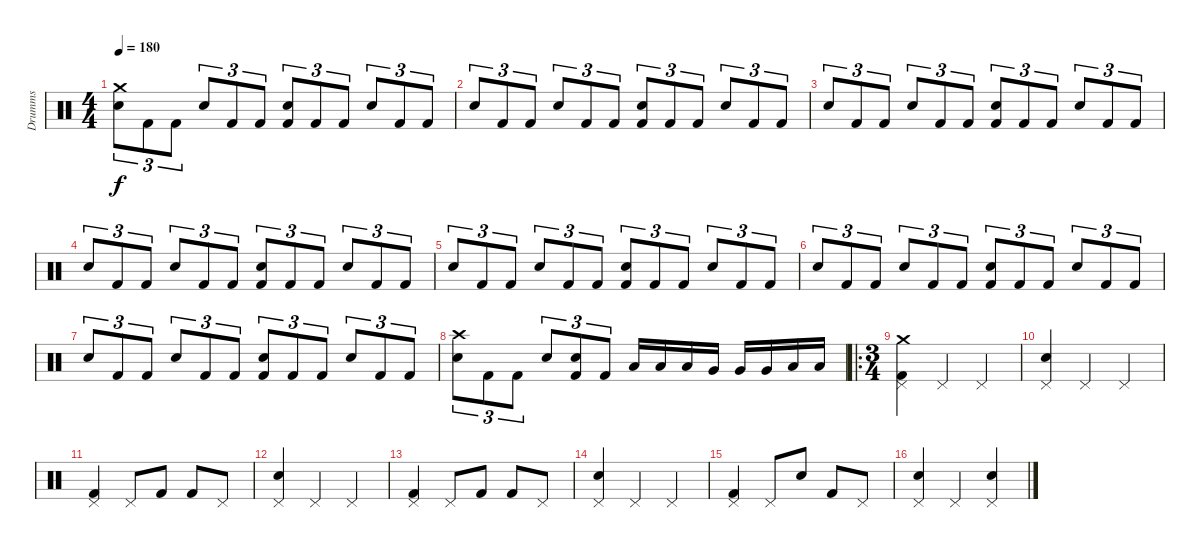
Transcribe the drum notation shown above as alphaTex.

\track ("Drumms" "Drumms") {instrument percussion}
\staff {score}
\articulation defaults
\ts (4 4)
\tempo 180
\clef neutral
\ks c
("Snare (hit) 2" "Crash medium (hit)").8{tu (3 2) dy f} "Kick (hit) 2".8{tu (3 2)} "Kick (hit) 2".8{tu (3 2)} "Snare (hit) 2".8{tu (3 2)} "Kick (hit) 2".8{tu (3 2)} "Kick (hit) 2".8{tu (3 2)} ("Kick (hit) 2" "Snare (hit) 2").8{tu (3 2)} "Kick (hit) 2".8{tu (3 2)} "Kick (hit) 2".8{tu (3 2)} "Snare (hit) 2".8{tu (3 2)} "Kick (hit) 2".8{tu (3 2)} "Kick (hit) 2".8{tu (3 2)} |
"Snare (hit) 2".8{tu (3 2)} "Kick (hit) 2".8{tu (3 2)} "Kick (hit) 2".8{tu (3 2)} "Snare (hit) 2".8{tu (3 2)} "Kick (hit) 2".8{tu (3 2)} "Kick (hit) 2".8{tu (3 2)} ("Kick (hit) 2" "Snare (hit) 2").8{tu (3 2)} "Kick (hit) 2".8{tu (3 2)} "Kick (hit) 2".8{tu (3 2)} "Snare (hit) 2".8{tu (3 2)} "Kick (hit) 2".8{tu (3 2)} "Kick (hit) 2".8{tu (3 2)} |
"Snare (hit) 2".8{tu (3 2)} "Kick (hit) 2".8{tu (3 2)} "Kick (hit) 2".8{tu (3 2)} "Snare (hit) 2".8{tu (3 2)} "Kick (hit) 2".8{tu (3 2)} "Kick (hit) 2".8{tu (3 2)} ("Kick (hit) 2" "Snare (hit) 2").8{tu (3 2)} "Kick (hit) 2".8{tu (3 2)} "Kick (hit) 2".8{tu (3 2)} "Snare (hit) 2".8{tu (3 2)} "Kick (hit) 2".8{tu (3 2)} "Kick (hit) 2".8{tu (3 2)} |
"Snare (hit) 2".8{tu (3 2)} "Kick (hit) 2".8{tu (3 2)} "Kick (hit) 2".8{tu (3 2)} "Snare (hit) 2".8{tu (3 2)} "Kick (hit) 2".8{tu (3 2)} "Kick (hit) 2".8{tu (3 2)} ("Kick (hit) 2" "Snare (hit) 2").8{tu (3 2)} "Kick (hit) 2".8{tu (3 2)} "Kick (hit) 2".8{tu (3 2)} "Snare (hit) 2".8{tu (3 2)} "Kick (hit) 2".8{tu (3 2)} "Kick (hit) 2".8{tu (3 2)} |
"Snare (hit) 2".8{tu (3 2)} "Kick (hit) 2".8{tu (3 2)} "Kick (hit) 2".8{tu (3 2)} "Snare (hit) 2".8{tu (3 2)} "Kick (hit) 2".8{tu (3 2)} "Kick (hit) 2".8{tu (3 2)} ("Kick (hit) 2" "Snare (hit) 2").8{tu (3 2)} "Kick (hit) 2".8{tu (3 2)} "Kick (hit) 2".8{tu (3 2)} "Snare (hit) 2".8{tu (3 2)} "Kick (hit) 2".8{tu (3 2)} "Kick (hit) 2".8{tu (3 2)} |
"Snare (hit) 2".8{tu (3 2)} "Kick (hit) 2".8{tu (3 2)} "Kick (hit) 2".8{tu (3 2)} "Snare (hit) 2".8{tu (3 2)} "Kick (hit) 2".8{tu (3 2)} "Kick (hit) 2".8{tu (3 2)} ("Kick (hit) 2" "Snare (hit) 2").8{tu (3 2)} "Kick (hit) 2".8{tu (3 2)} "Kick (hit) 2".8{tu (3 2)} "Snare (hit) 2".8{tu (3 2)} "Kick (hit) 2".8{tu (3 2)} "Kick (hit) 2".8{tu (3 2)} |
"Snare (hit) 2".8{tu (3 2)} "Kick (hit) 2".8{tu (3 2)} "Kick (hit) 2".8{tu (3 2)} "Snare (hit) 2".8{tu (3 2)} "Kick (hit) 2".8{tu (3 2)} "Kick (hit) 2".8{tu (3 2)} ("Kick (hit) 2" "Snare (hit) 2").8{tu (3 2)} "Kick (hit) 2".8{tu (3 2)} "Kick (hit) 2".8{tu (3 2)} "Snare (hit) 2".8{tu (3 2)} "Kick (hit) 2".8{tu (3 2)} "Kick (hit) 2".8{tu (3 2)} |
("Snare (hit) 2" "Crash high (hit)").8{tu (3 2)} "Kick (hit) 2".8{tu (3 2)} "Kick (hit) 2".8{tu (3 2)} "Snare (hit) 2".8{tu (3 2)} ("Kick (hit) 2" "Snare (hit) 2").8{tu (3 2)} "Kick (hit) 2".8{tu (3 2)} "Low Tom (hit)".16 "Low Tom (hit)".16 "Low Tom (hit)".16 "Very Low Tom (hit)".16 "Very Low Tom (hit)".16 "Very Low Tom (hit)".16 "Low Floor Tom (hit)".16 "Low Floor Tom (hit)".16 |
\ro
\ts (3 4)
("Pedal Hi-Hat (hit)" "Kick (hit) 2" "Crash medium (hit)").4 "Pedal Hi-Hat (hit)".4 "Pedal Hi-Hat (hit)".4 |
("Pedal Hi-Hat (hit)" "Snare (hit) 2").4 "Pedal Hi-Hat (hit)".4 "Pedal Hi-Hat (hit)".4 |
("Pedal Hi-Hat (hit)" "Kick (hit) 2").4 "Pedal Hi-Hat (hit)".8 "Kick (hit) 2".8 "Kick (hit) 2".8 "Pedal Hi-Hat (hit)".8 |
("Pedal Hi-Hat (hit)" "Snare (hit) 2").4 "Pedal Hi-Hat (hit)".4 "Pedal Hi-Hat (hit)".4 |
("Pedal Hi-Hat (hit)" "Kick (hit) 2").4 "Pedal Hi-Hat (hit)".8 "Kick (hit) 2".8 "Kick (hit) 2".8 "Pedal Hi-Hat (hit)".8 |
("Pedal Hi-Hat (hit)" "Snare (hit) 2").4 "Pedal Hi-Hat (hit)".4 "Pedal Hi-Hat (hit)".4 |
("Pedal Hi-Hat (hit)" "Kick (hit) 2").4 "Pedal Hi-Hat (hit)".8 "Snare (hit) 2".8 "Kick (hit) 2".8 "Pedal Hi-Hat (hit)".8 |
("Pedal Hi-Hat (hit)" "Snare (hit) 2").4 "Pedal Hi-Hat (hit)".4 ("Pedal Hi-Hat (hit)" "Snare (hit) 2").4
